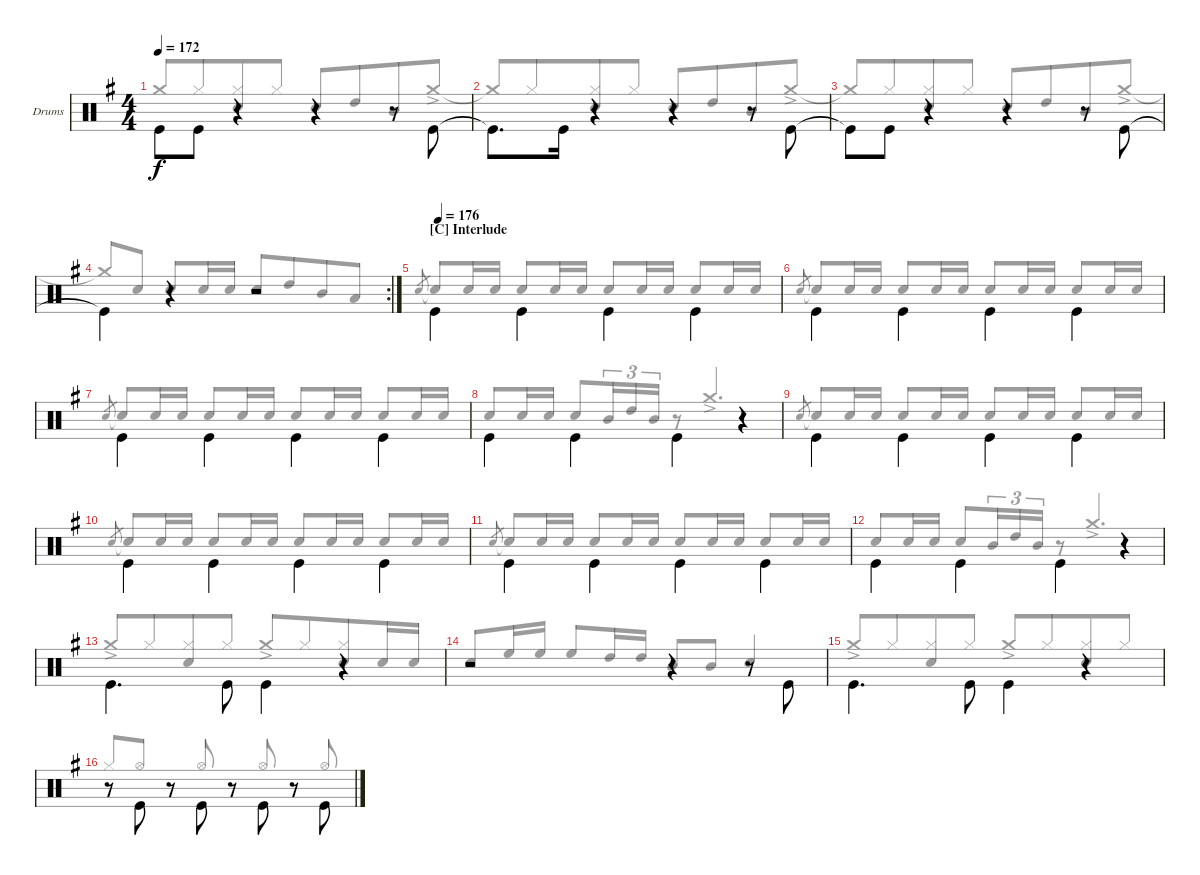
\bracketExtendMode groupsimilarinstruments
\firstSystemTrackNameOrientation horizontal
\otherSystemsTrackNameOrientation horizontal
\track ("Drums" "Drums") {instrument percussion}
\staff {score}
\articulation defaults
\voice
\ts (4 4)
\tempo 172
\clef neutral
\scale
1.04288
\ks g "Kick (hit)"{t}.8{dy f beam invert} "Kick (hit)".8
r.4 r.4 r.8 "Kick (hit)".8{beam invert} |
\scale
0.957125 "Kick (hit)"{t}.8{d beam invert} "Kick (hit)".16 r.4{beam invert} r.4{beam invert} r.8{beam invert} "Kick (hit)".8{beam invert} |
\scale
1.04288 "Kick (hit)"{t}.8{beam invert} "Kick (hit)".8 r.4 r.4 r.8 "Kick (hit)".8{beam invert} |
\rc 2
\scale
0.957125 "Kick (hit)"{t}.4{beam invert} r.4 r.2 |
\section ("C" "Interlude")
\tempo (176 0.0125)
\scale
1.04288 "Kick (hit)".4{beam invert} "Kick (hit)".4{beam invert} "Kick (hit)".4{beam invert} "Kick (hit)".4{beam invert} |
\scale
0.957125 "Kick (hit)".4{beam invert} "Kick (hit)".4{beam invert} "Kick (hit)".4{beam invert} "Kick (hit)".4{beam invert} |
\scale
1.04288 "Kick (hit)".4{beam invert} "Kick (hit)".4{beam invert} "Kick (hit)".4{beam invert} "Kick (hit)".4{beam invert} |
\scale
0.957125 "Kick (hit)".4{beam invert} "Kick (hit)".4{beam invert} "Kick (hit)".4{beam invert} r.4 |
\scale
1.04288 "Kick (hit)".4{beam invert} "Kick (hit)".4{beam invert} "Kick (hit)".4{beam invert} "Kick (hit)".4{beam invert} |
\scale
0.957125 "Kick (hit)".4{beam invert} "Kick (hit)".4{beam invert} "Kick (hit)".4{beam invert} "Kick (hit)".4{beam invert} |
\scale
1.04288 "Kick (hit)".4{beam invert} "Kick (hit)".4{beam invert} "Kick (hit)".4{beam invert} "Kick (hit)".4{beam invert} |
\scale
0.957125 "Kick (hit)".4{beam invert} "Kick (hit)".4{beam invert} "Kick (hit)".4{beam invert} r.4 |
\scale
1.04288 "Kick (hit)".4{d beam invert} "Kick (hit)".8{beam invert} "Kick (hit)".4{beam invert} r.4 |
\scale
0.957125 r.2 r.4 r.8 "Kick (hit)".8{beam invert} |
\scale
1.04288 "Kick (hit)".4{d beam invert} "Kick (hit)".8{beam invert} "Kick (hit)".4{beam invert} r.4 |
\scale
0.957125 r.8 "Kick (hit)".8{beam invert} r.8 "Kick (hit)".8{beam invert} r.8 "Kick (hit)".8{beam invert} r.8 "Kick (hit)".8{beam invert}
\voice
\clef neutral
\ottava regular
\simile none
\scale
1.04288
\ks g "Crash medium (hit)"{t}.8{dy f beam invert} "Hi-Hat (closed)".8{beam merge}
("Hi-Hat (closed)" "Snare (hit) 2").8{beam merge} "Hi-Hat (closed)".8{beam split} "Snare (hit) 2".8{beam invert} "High Tom (hit)".8{beam merge} "Mid Tom (hit)".8 "Crash medium (hit)"{ac}.8 |
\scale
0.957125 "Crash medium (hit)"{t}.8{beam invert} "Hi-Hat (closed)".8{beam merge} ("Hi-Hat (closed)" "Snare (hit) 2").8{beam merge} "Hi-Hat (closed)".8{beam split} "Snare (hit) 2".8{beam invert} "High Tom (hit)".8{beam merge} "Mid Tom (hit)".8 "Crash medium (hit)"{ac}.8 |
\scale
1.04288 "Crash medium (hit)"{t}.8{beam invert} "Hi-Hat (closed)".8{beam merge} ("Hi-Hat (closed)" "Snare (hit) 2").8{beam merge} "Hi-Hat (closed)".8{beam split} "Snare (hit) 2".8{beam invert} "High Tom (hit)".8{beam merge} "Mid Tom (hit)".8 "Crash medium (hit)"{ac}.8 |
\scale
0.957125 "Crash medium (hit)"{t}.8{beam invert} "Snare (hit) 2".8 "Snare (hit) 2".8{beam invert} "Snare (hit) 2".16 "Snare (hit) 2".16 "Snare (hit) 2".8{beam invert} "High Tom (hit)".8{beam merge} "Mid Tom (hit)".8 "Low Tom (hit)".8 |
\scale
1.04288 "Snare (hit) 2".8{gr beam invert} "Snare (hit) 2"{t}.8{beam invert} "Snare (hit) 2".16 "Snare (hit) 2".16 "Snare (hit) 2".8{beam invert} "Snare (hit) 2".16 "Snare (hit) 2".16 "Snare (hit) 2".8{beam invert} "Snare (hit) 2".16 "Snare (hit) 2".16 "Snare (hit) 2".8{beam invert} "Snare (hit) 2".16 "Snare (hit) 2".16 |
\scale
0.957125 "Snare (hit) 2".8{gr beam invert} "Snare (hit) 2"{t}.8{beam invert} "Snare (hit) 2".16 "Snare (hit) 2".16 "Snare (hit) 2".8{beam invert} "Snare (hit) 2".16 "Snare (hit) 2".16 "Snare (hit) 2".8{beam invert} "Snare (hit) 2".16 "Snare (hit) 2".16 "Snare (hit) 2".8{beam invert} "Snare (hit) 2".16 "Snare (hit) 2".16 |
\scale
1.04288 "Snare (hit) 2".8{gr beam invert} "Snare (hit) 2"{t}.8{beam invert} "Snare (hit) 2".16 "Snare (hit) 2".16 "Snare (hit) 2".8{beam invert} "Snare (hit) 2".16 "Snare (hit) 2".16 "Snare (hit) 2".8{beam invert} "Snare (hit) 2".16 "Snare (hit) 2".16 "Snare (hit) 2".8{beam invert} "Snare (hit) 2".16 "Snare (hit) 2".16 |
\scale
0.957125 "Snare (hit) 2".8{beam invert} "Snare (hit) 2".16 "Snare (hit) 2".16 "Snare (hit) 2".8{beam invert beam merge} "Mid Tom (hit)".16{tu (3 2) beam merge} "High Tom (hit)".16{tu (3 2) beam merge} "Mid Tom (hit)".16{tu (3 2)} r.8 "Crash medium (hit)"{ac}.4{d beam invert} |
\scale
1.04288 "Snare (hit) 2".8{gr beam invert} "Snare (hit) 2"{t}.8{beam invert} "Snare (hit) 2".16 "Snare (hit) 2".16 "Snare (hit) 2".8{beam invert} "Snare (hit) 2".16 "Snare (hit) 2".16 "Snare (hit) 2".8{beam invert} "Snare (hit) 2".16 "Snare (hit) 2".16 "Snare (hit) 2".8{beam invert} "Snare (hit) 2".16 "Snare (hit) 2".16 |
\scale
0.957125 "Snare (hit) 2".8{gr beam invert} "Snare (hit) 2"{t}.8{beam invert} "Snare (hit) 2".16 "Snare (hit) 2".16 "Snare (hit) 2".8{beam invert} "Snare (hit) 2".16 "Snare (hit) 2".16 "Snare (hit) 2".8{beam invert} "Snare (hit) 2".16 "Snare (hit) 2".16 "Snare (hit) 2".8{beam invert} "Snare (hit) 2".16 "Snare (hit) 2".16 |
\scale
1.04288 "Snare (hit) 2".8{gr beam invert} "Snare (hit) 2"{t}.8{beam invert} "Snare (hit) 2".16 "Snare (hit) 2".16 "Snare (hit) 2".8{beam invert} "Snare (hit) 2".16 "Snare (hit) 2".16 "Snare (hit) 2".8{beam invert} "Snare (hit) 2".16 "Snare (hit) 2".16 "Snare (hit) 2".8{beam invert} "Snare (hit) 2".16 "Snare (hit) 2".16 |
\scale
0.957125 "Snare (hit) 2".8{beam invert} "Snare (hit) 2".16 "Snare (hit) 2".16 "Snare (hit) 2".8{beam invert beam merge} "Mid Tom (hit)".16{tu (3 2) beam merge} "High Tom (hit)".16{tu (3 2) beam merge} "Mid Tom (hit)".16{tu (3 2)} r.8 "Crash medium (hit)"{ac}.4{d beam invert} |
\scale
1.04288 "Crash medium (hit)"{ac}.8{beam invert} "Hi-Hat (closed)".8{beam merge} ("Hi-Hat (closed)" "Snare (hit) 2").8{beam merge} "Hi-Hat (closed)".8{beam split} "Crash medium (hit)"{ac}.8{beam invert} "Hi-Hat (closed)".8{beam merge} ("Hi-Hat (closed)" "Snare (hit) 2").8{beam merge} "Snare (hit) 2".16 "Snare (hit) 2".16 |
\scale
0.957125 "Snare (hit) 2".8{beam invert} "High Floor Tom (hit)".16 "High Floor Tom (hit)".16 "High Floor Tom (hit)".8{beam invert} "High Tom (hit)".16 "High Tom (hit)".16 "Mid Tom (hit)".8{beam invert} "Mid Tom (hit)".8 "Snare (hit) 2".4{beam invert} |
\scale
1.04288 "Crash medium (hit)"{ac}.8{beam invert} "Hi-Hat (closed)".8{beam merge} ("Hi-Hat (closed)" "Snare (hit) 2").8{beam merge} "Hi-Hat (closed)".8{beam split} "Crash medium (hit)"{ac}.8{beam invert} "Hi-Hat (closed)".8{beam merge} ("Hi-Hat (closed)" "Snare (hit) 2").8{beam merge} "Hi-Hat (closed)".8{beam split} |
\scale
0.957125 "Hi-Hat (closed)".8{beam invert} "Hi-Hat (open)".8 r.8{beam invert} "Hi-Hat (open)".8{beam invert} r.8{beam invert} "Hi-Hat (open)".8{beam invert} r.8{beam invert} "Hi-Hat (open)".8{beam invert}
